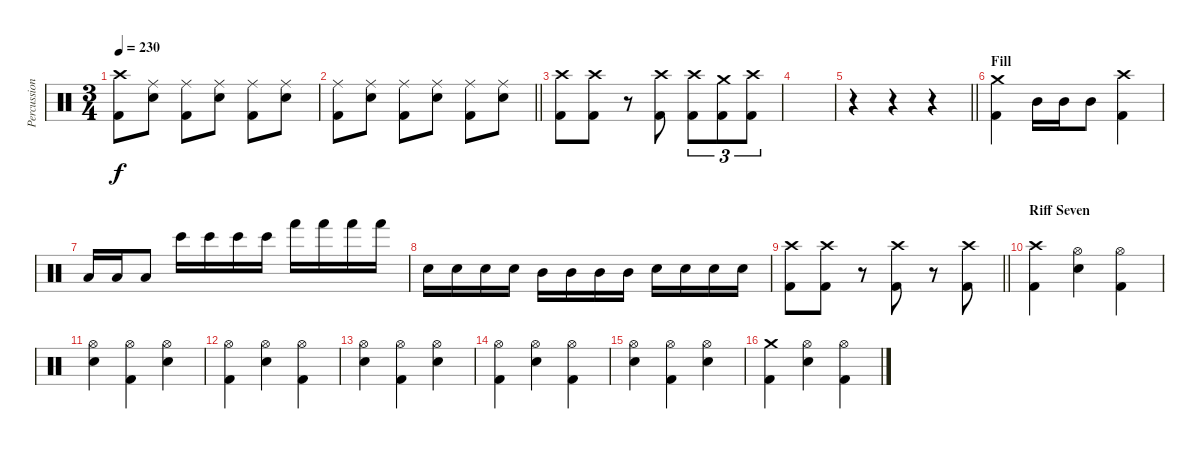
\track ("Percussion" "Percussion") {instrument percussion}
\staff {score}
\articulation defaults
\ts (3 4)
\tempo 230
\clef neutral
\ks c
("Crash high (hit)" "Kick (hit) 2").8{dy f} ("Ride (middle)" "Electric Snare (hit)").8 ("Ride (middle)" "Kick (hit) 2").8 ("Ride (middle)" "Electric Snare (hit)").8 ("Ride (middle)" "Kick (hit) 2").8 ("Ride (middle)" "Electric Snare (hit)").8 |
\barLineRight lightlight
("Ride (middle)" "Kick (hit) 2").8 ("Ride (middle)" "Electric Snare (hit)").8 ("Ride (middle)" "Kick (hit) 2").8 ("Ride (middle)" "Electric Snare (hit)").8 ("Ride (middle)" "Kick (hit) 2").8 ("Ride (middle)" "Electric Snare (hit)").8 |
("Crash high (hit)" "Kick (hit) 2").8 ("Crash high (hit)" "Kick (hit) 2").8 r.8 ("Crash high (hit)" "Kick (hit) 2").8 ("Crash high (hit)" "Kick (hit) 2").8{tu (3 2)} ("Crash medium (hit)" "Kick (hit) 2").8{tu (3 2)} ("Crash high (hit)" "Kick (hit) 2").8{tu (3 2)} |
|
\barLineRight lightlight
r.4 r.4 r.4 |
\section ("" "Fill")
("Crash medium (hit)" "Kick (hit) 2").4 "Mid Tom (hit)".16 "Mid Tom (hit)".16 "Mid Tom (hit)".8 ("Crash high (hit)" "Kick (hit) 2").4 |
"Low Tom (hit)".16 "Low Tom (hit)".16 "Low Tom (hit)".8 "Bongo High (hit)".16 "Bongo High (hit)".16 "Bongo High (hit)".16 "Bongo High (hit)".16 "Hand (hit)".16 "Hand (hit)".16 "Hand (hit)".16 "Hand (hit)".16 |
"Electric Snare (hit)".16 "Electric Snare (hit)".16 "Electric Snare (hit)".16 "Electric Snare (hit)".16 "Mid Tom (hit)".16 "Mid Tom (hit)".16 "Mid Tom (hit)".16 "Mid Tom (hit)".16 "Electric Snare (hit)".16 "Electric Snare (hit)".16 "Electric Snare (hit)".16 "Electric Snare (hit)".16 |
\barLineRight lightlight
("Crash high (hit)" "Kick (hit) 2").8 ("Crash high (hit)" "Kick (hit) 2").8 r.8 ("Crash high (hit)" "Kick (hit) 2").8 r.8 ("Crash high (hit)" "Kick (hit) 2").8 |
\section ("" "Riff Seven")
("Crash high (hit)" "Kick (hit) 2").4 ("Hi-Hat (open)" "Electric Snare (hit)").4 ("Hi-Hat (open)" "Kick (hit) 2").4 |
("Hi-Hat (open)" "Electric Snare (hit)").4 ("Hi-Hat (open)" "Kick (hit) 2").4 ("Hi-Hat (open)" "Electric Snare (hit)").4 |
("Hi-Hat (open)" "Kick (hit) 2").4 ("Hi-Hat (open)" "Electric Snare (hit)").4 ("Hi-Hat (open)" "Kick (hit) 2").4 |
("Hi-Hat (open)" "Electric Snare (hit)").4 ("Hi-Hat (open)" "Kick (hit) 2").4 ("Hi-Hat (open)" "Electric Snare (hit)").4 |
("Hi-Hat (open)" "Kick (hit) 2").4 ("Hi-Hat (open)" "Electric Snare (hit)").4 ("Hi-Hat (open)" "Kick (hit) 2").4 |
("Hi-Hat (open)" "Electric Snare (hit)").4 ("Hi-Hat (open)" "Kick (hit) 2").4 ("Hi-Hat (open)" "Electric Snare (hit)").4 |
("Crash medium (hit)" "Kick (hit) 2").4 ("Hi-Hat (open)" "Electric Snare (hit)").4 ("Hi-Hat (open)" "Kick (hit) 2").4
